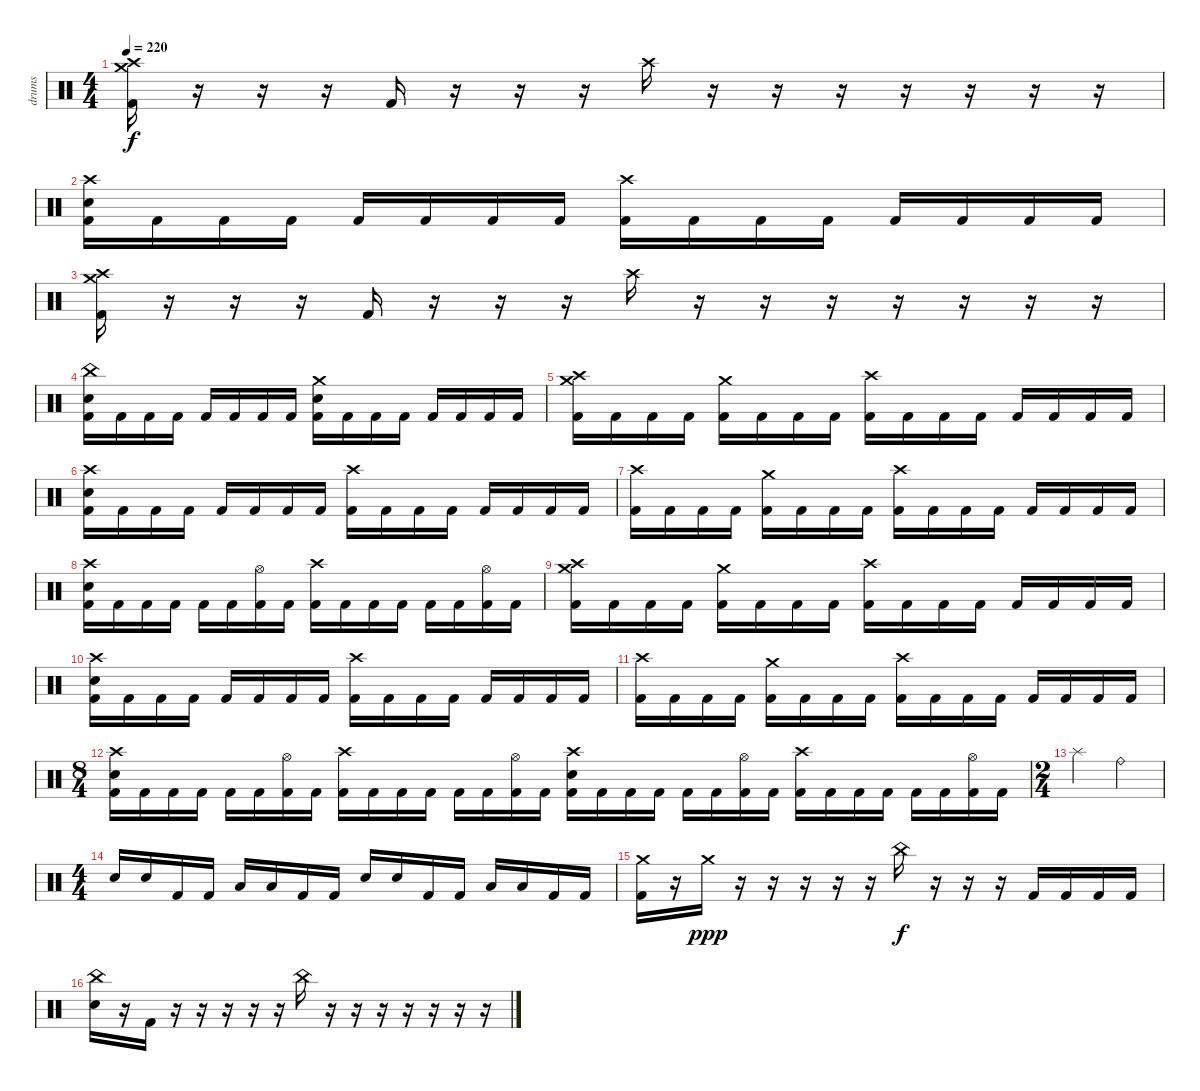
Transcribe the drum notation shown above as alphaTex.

\track ("drums" "drums") {instrument percussion}
\staff {score}
\articulation defaults
\ts (4 4)
\tempo 220
\clef neutral
\ks c
("Crash high (hit)" "Crash medium (hit)" "Kick (hit) 2").16{dy f} r.16 r.16 r.16 "Kick (hit) 2".16 r.16 r.16 r.16 "Crash high (hit)".16 r.16 r.16 r.16 r.16 r.16 r.16 r.16 |
("Crash high (hit)" "Electric Snare (hit)" "Kick (hit) 2").16 "Kick (hit) 2".16 "Kick (hit) 2".16 "Kick (hit) 2".16 "Kick (hit) 2".16 "Kick (hit) 2".16 "Kick (hit) 2".16 "Kick (hit) 2".16 ("Crash high (hit)" "Kick (hit) 2").16 "Kick (hit) 2".16 "Kick (hit) 2".16 "Kick (hit) 2".16 "Kick (hit) 2".16 "Kick (hit) 2".16 "Kick (hit) 2".16 "Kick (hit) 2".16 |
("Crash high (hit)" "Crash medium (hit)" "Kick (hit) 2").16 r.16 r.16 r.16 "Kick (hit) 2".16 r.16 r.16 r.16 "Crash high (hit)".16 r.16 r.16 r.16 r.16 r.16 r.16 r.16 |
("China (hit)" "Electric Snare (hit)" "Kick (hit) 2").16 "Kick (hit) 2".16 "Kick (hit) 2".16 "Kick (hit) 2".16 "Kick (hit) 2".16 "Kick (hit) 2".16 "Kick (hit) 2".16 "Kick (hit) 2".16 ("Crash medium (hit)" "Electric Snare (hit)" "Kick (hit) 2").16 "Kick (hit) 2".16 "Kick (hit) 2".16 "Kick (hit) 2".16 "Kick (hit) 2".16 "Kick (hit) 2".16 "Kick (hit) 2".16 "Kick (hit) 2".16 |
("Crash high (hit)" "Crash medium (hit)" "Kick (hit) 2").16 "Kick (hit) 2".16 "Kick (hit) 2".16 "Kick (hit) 2".16 ("Crash medium (hit)" "Kick (hit) 2").16 "Kick (hit) 2".16 "Kick (hit) 2".16 "Kick (hit) 2".16 ("Crash high (hit)" "Kick (hit) 2").16 "Kick (hit) 2".16 "Kick (hit) 2".16 "Kick (hit) 2".16 "Kick (hit) 2".16 "Kick (hit) 2".16 "Kick (hit) 2".16 "Kick (hit) 2".16 |
("Crash high (hit)" "Electric Snare (hit)" "Kick (hit) 2").16 "Kick (hit) 2".16 "Kick (hit) 2".16 "Kick (hit) 2".16 "Kick (hit) 2".16 "Kick (hit) 2".16 "Kick (hit) 2".16 "Kick (hit) 2".16 ("Crash high (hit)" "Kick (hit) 2").16 "Kick (hit) 2".16 "Kick (hit) 2".16 "Kick (hit) 2".16 "Kick (hit) 2".16 "Kick (hit) 2".16 "Kick (hit) 2".16 "Kick (hit) 2".16 |
("Crash high (hit)" "Kick (hit) 2").16 "Kick (hit) 2".16 "Kick (hit) 2".16 "Kick (hit) 2".16 ("Crash medium (hit)" "Kick (hit) 2").16 "Kick (hit) 2".16 "Kick (hit) 2".16 "Kick (hit) 2".16 ("Crash high (hit)" "Kick (hit) 2").16 "Kick (hit) 2".16 "Kick (hit) 2".16 "Kick (hit) 2".16 "Kick (hit) 2".16 "Kick (hit) 2".16 "Kick (hit) 2".16 "Kick (hit) 2".16 |
("Crash high (hit)" "Electric Snare (hit)" "Kick (hit) 2").16 "Kick (hit) 2".16 "Kick (hit) 2".16 "Kick (hit) 2".16 "Kick (hit) 2".16 "Kick (hit) 2".16 ("Hi-Hat (open)" "Kick (hit) 2").16 "Kick (hit) 2".16 ("Crash high (hit)" "Kick (hit) 2").16 "Kick (hit) 2".16 "Kick (hit) 2".16 "Kick (hit) 2".16 "Kick (hit) 2".16 "Kick (hit) 2".16 ("Hi-Hat (open)" "Kick (hit) 2").16 "Kick (hit) 2".16 |
("Crash high (hit)" "Crash medium (hit)" "Kick (hit) 2").16 "Kick (hit) 2".16 "Kick (hit) 2".16 "Kick (hit) 2".16 ("Crash medium (hit)" "Kick (hit) 2").16 "Kick (hit) 2".16 "Kick (hit) 2".16 "Kick (hit) 2".16 ("Crash high (hit)" "Kick (hit) 2").16 "Kick (hit) 2".16 "Kick (hit) 2".16 "Kick (hit) 2".16 "Kick (hit) 2".16 "Kick (hit) 2".16 "Kick (hit) 2".16 "Kick (hit) 2".16 |
("Crash high (hit)" "Electric Snare (hit)" "Kick (hit) 2").16 "Kick (hit) 2".16 "Kick (hit) 2".16 "Kick (hit) 2".16 "Kick (hit) 2".16 "Kick (hit) 2".16 "Kick (hit) 2".16 "Kick (hit) 2".16 ("Crash high (hit)" "Kick (hit) 2").16 "Kick (hit) 2".16 "Kick (hit) 2".16 "Kick (hit) 2".16 "Kick (hit) 2".16 "Kick (hit) 2".16 "Kick (hit) 2".16 "Kick (hit) 2".16 |
("Crash high (hit)" "Kick (hit) 2").16 "Kick (hit) 2".16 "Kick (hit) 2".16 "Kick (hit) 2".16 ("Crash medium (hit)" "Kick (hit) 2").16 "Kick (hit) 2".16 "Kick (hit) 2".16 "Kick (hit) 2".16 ("Crash high (hit)" "Kick (hit) 2").16 "Kick (hit) 2".16 "Kick (hit) 2".16 "Kick (hit) 2".16 "Kick (hit) 2".16 "Kick (hit) 2".16 "Kick (hit) 2".16 "Kick (hit) 2".16 |
\ts (8 4)
("Crash high (hit)" "Electric Snare (hit)" "Kick (hit) 2").16 "Kick (hit) 2".16 "Kick (hit) 2".16 "Kick (hit) 2".16 "Kick (hit) 2".16 "Kick (hit) 2".16 ("Hi-Hat (open)" "Kick (hit) 2").16 "Kick (hit) 2".16 ("Crash high (hit)" "Kick (hit) 2").16 "Kick (hit) 2".16 "Kick (hit) 2".16 "Kick (hit) 2".16 "Kick (hit) 2".16 "Kick (hit) 2".16 ("Hi-Hat (open)" "Kick (hit) 2").16 "Kick (hit) 2".16 ("Crash high (hit)" "Electric Snare (hit)" "Kick (hit) 2").16 "Kick (hit) 2".16 "Kick (hit) 2".16 "Kick (hit) 2".16 "Kick (hit) 2".16 "Kick (hit) 2".16 ("Hi-Hat (open)" "Kick (hit) 2").16 "Kick (hit) 2".16 ("Crash high (hit)" "Kick (hit) 2").16 "Kick (hit) 2".16 "Kick (hit) 2".16 "Kick (hit) 2".16 "Kick (hit) 2".16 "Kick (hit) 2".16 ("Hi-Hat (open)" "Kick (hit) 2").16 "Kick (hit) 2".16 |
\ts (2 4)
"Splash (hit)".4 "Ride (bell)".4 |
\ts (4 4)
"Electric Snare (hit)".16 "Electric Snare (hit)".16 "Kick (hit) 2".16 "Kick (hit) 2".16 "Low Floor Tom (hit)".16 "Low Tom (hit)".16 "Kick (hit) 2".16 "Kick (hit) 2".16 "Electric Snare (hit)".16 "Electric Snare (hit)".16 "Kick (hit) 2".16 "Kick (hit) 2".16 "Low Floor Tom (hit)".16 "Low Tom (hit)".16 "Kick (hit) 2".16 "Kick (hit) 2".16 |
("Crash medium (hit)" "Kick (hit) 2").16 r.16 "Crash medium (hit)".16{dy ppp} r.16 r.16 r.16 r.16 r.16 "China (hit)".16{dy f} r.16 r.16 r.16 "Kick (hit) 2".16 "Kick (hit) 2".16 "Kick (hit) 2".16 "Kick (hit) 2".16 |
("China (hit)" "Electric Snare (hit)").16 r.16 "Kick (hit) 2".16 r.16 r.16 r.16 r.16 r.16 "China (hit)".16 r.16 r.16 r.16 r.16 r.16 r.16 r.16
